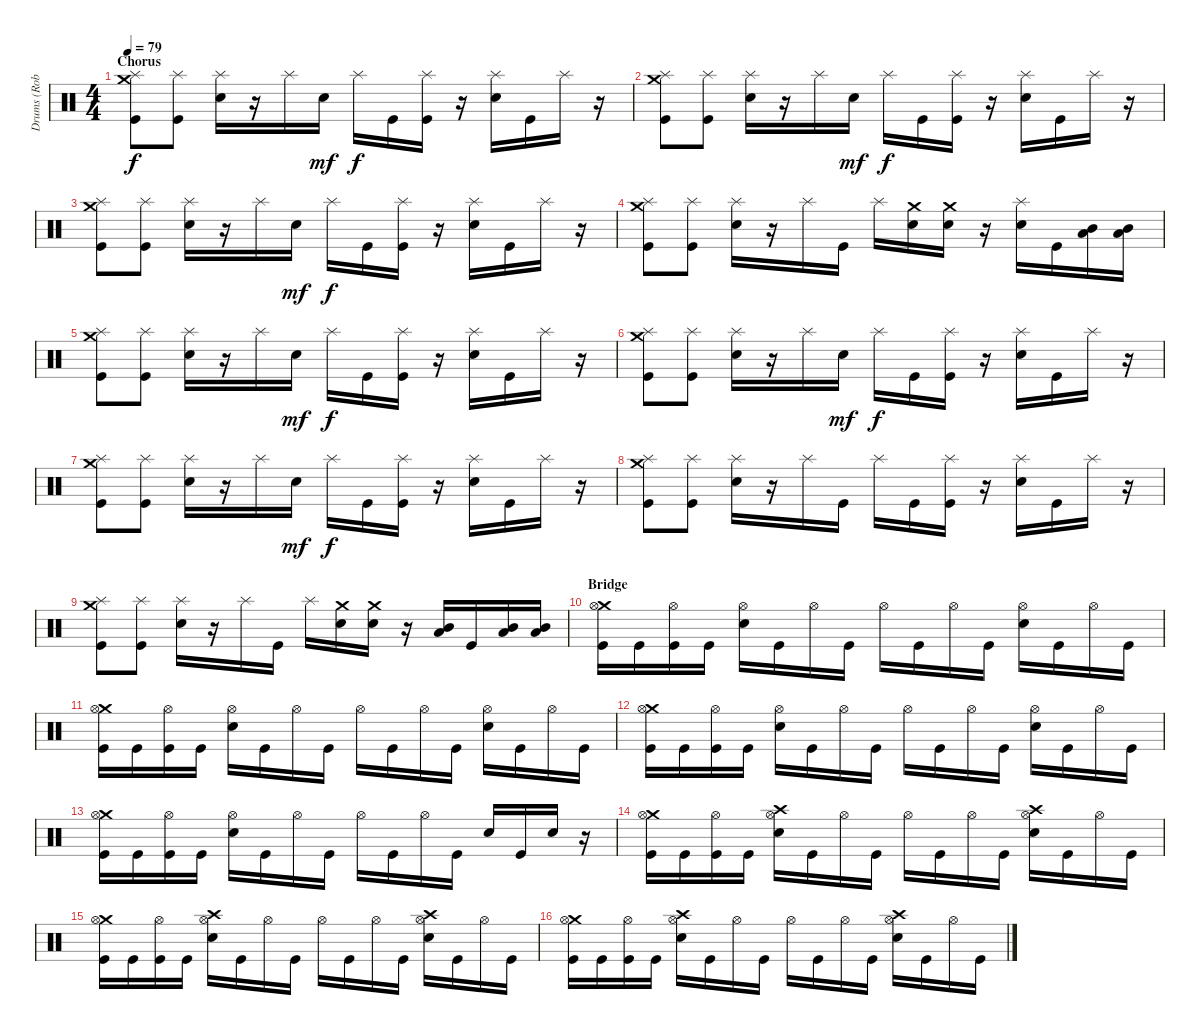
\track ("Drums (Rob Bourdon)" "Drums (Rob") {instrument percussion}
\staff {score}
\articulation defaults
\ts (4 4)
\section ("" "Chorus")
\tempo 79
\clef neutral
\ks c
("Crash medium (hit)" "Splash (hit)" "Kick (hit)").8{dy f} ("Splash (hit)" "Kick (hit)").8 ("Splash (hit)" "Electric Snare (hit)").16 r.16 "Splash (hit)".16 "Electric Snare (hit)".16{dy mf} "Splash (hit)".16{dy f} "Kick (hit)".16 ("Splash (hit)" "Kick (hit)").16 r.16 ("Splash (hit)" "Electric Snare (hit)").16 "Kick (hit)".16 "Splash (hit)".16 r.16 |
("Crash medium (hit)" "Splash (hit)" "Kick (hit)").8 ("Splash (hit)" "Kick (hit)").8 ("Splash (hit)" "Electric Snare (hit)").16 r.16 "Splash (hit)".16 "Electric Snare (hit)".16{dy mf} "Splash (hit)".16{dy f} "Kick (hit)".16 ("Splash (hit)" "Kick (hit)").16 r.16 ("Splash (hit)" "Electric Snare (hit)").16 "Kick (hit)".16 "Splash (hit)".16 r.16 |
("Crash medium (hit)" "Splash (hit)" "Kick (hit)").8 ("Splash (hit)" "Kick (hit)").8 ("Splash (hit)" "Electric Snare (hit)").16 r.16 "Splash (hit)".16 "Electric Snare (hit)".16{dy mf} "Splash (hit)".16{dy f} "Kick (hit)".16 ("Splash (hit)" "Kick (hit)").16 r.16 ("Splash (hit)" "Electric Snare (hit)").16 "Kick (hit)".16 "Splash (hit)".16 r.16 |
("Crash medium (hit)" "Splash (hit)" "Kick (hit)").8 ("Splash (hit)" "Kick (hit)").8 ("Splash (hit)" "Electric Snare (hit)").16 r.16 "Splash (hit)".16 "Kick (hit)".16 "Splash (hit)".16 ("Crash medium (hit)" "Electric Snare (hit)").16 ("Crash medium (hit)" "Electric Snare (hit)").16 r.16 ("Splash (hit)" "Electric Snare (hit)").16 "Kick (hit)".16 ("Mid Tom (hit)" "Low Tom (hit)").16 ("Mid Tom (hit)" "Low Tom (hit)").16 |
("Crash medium (hit)" "Splash (hit)" "Kick (hit)").8 ("Splash (hit)" "Kick (hit)").8 ("Splash (hit)" "Electric Snare (hit)").16 r.16 "Splash (hit)".16 "Electric Snare (hit)".16{dy mf} "Splash (hit)".16{dy f} "Kick (hit)".16 ("Splash (hit)" "Kick (hit)").16 r.16 ("Splash (hit)" "Electric Snare (hit)").16 "Kick (hit)".16 "Splash (hit)".16 r.16 |
("Crash medium (hit)" "Splash (hit)" "Kick (hit)").8 ("Splash (hit)" "Kick (hit)").8 ("Splash (hit)" "Electric Snare (hit)").16 r.16 "Splash (hit)".16 "Electric Snare (hit)".16{dy mf} "Splash (hit)".16{dy f} "Kick (hit)".16 ("Splash (hit)" "Kick (hit)").16 r.16 ("Splash (hit)" "Electric Snare (hit)").16 "Kick (hit)".16 "Splash (hit)".16 r.16 |
("Crash medium (hit)" "Splash (hit)" "Kick (hit)").8 ("Splash (hit)" "Kick (hit)").8 ("Splash (hit)" "Electric Snare (hit)").16 r.16 "Splash (hit)".16 "Electric Snare (hit)".16{dy mf} "Splash (hit)".16{dy f} "Kick (hit)".16 ("Splash (hit)" "Kick (hit)").16 r.16 ("Splash (hit)" "Electric Snare (hit)").16 "Kick (hit)".16 "Splash (hit)".16 r.16 |
("Crash medium (hit)" "Splash (hit)" "Kick (hit)").8 ("Splash (hit)" "Kick (hit)").8 ("Splash (hit)" "Electric Snare (hit)").16 r.16 "Splash (hit)".16 "Kick (hit)".16 "Splash (hit)".16 "Kick (hit)".16 ("Splash (hit)" "Kick (hit)").16 r.16 ("Splash (hit)" "Electric Snare (hit)").16 "Kick (hit)".16 "Splash (hit)".16 r.16 |
("Crash medium (hit)" "Splash (hit)" "Kick (hit)").8 ("Splash (hit)" "Kick (hit)").8 ("Splash (hit)" "Electric Snare (hit)").16 r.16 "Splash (hit)".16 "Kick (hit)".16 "Splash (hit)".16 ("Crash medium (hit)" "Electric Snare (hit)").16 ("Crash medium (hit)" "Electric Snare (hit)").16 r.16 ("Mid Tom (hit)" "Low Tom (hit)").16 "Kick (hit)".16 ("Mid Tom (hit)" "Low Tom (hit)").16 ("Mid Tom (hit)" "Low Tom (hit)").16 |
\section ("" "Bridge")
("Crash medium (hit)" "Hi-Hat (open)" "Kick (hit)").16 "Kick (hit)".16 ("Hi-Hat (open)" "Kick (hit)").16 "Kick (hit)".16 ("Hi-Hat (open)" "Electric Snare (hit)").16 "Kick (hit)".16 "Hi-Hat (open)".16 "Kick (hit)".16 "Hi-Hat (open)".16 "Kick (hit)".16 "Hi-Hat (open)".16 "Kick (hit)".16 ("Hi-Hat (open)" "Electric Snare (hit)").16 "Kick (hit)".16 "Hi-Hat (open)".16 "Kick (hit)".16 |
("Crash medium (hit)" "Hi-Hat (open)" "Kick (hit)").16 "Kick (hit)".16 ("Hi-Hat (open)" "Kick (hit)").16 "Kick (hit)".16 ("Hi-Hat (open)" "Electric Snare (hit)").16 "Kick (hit)".16 "Hi-Hat (open)".16 "Kick (hit)".16 "Hi-Hat (open)".16 "Kick (hit)".16 "Hi-Hat (open)".16 "Kick (hit)".16 ("Hi-Hat (open)" "Electric Snare (hit)").16 "Kick (hit)".16 "Hi-Hat (open)".16 "Kick (hit)".16 |
("Crash medium (hit)" "Hi-Hat (open)" "Kick (hit)").16 "Kick (hit)".16 ("Hi-Hat (open)" "Kick (hit)").16 "Kick (hit)".16 ("Hi-Hat (open)" "Electric Snare (hit)").16 "Kick (hit)".16 "Hi-Hat (open)".16 "Kick (hit)".16 "Hi-Hat (open)".16 "Kick (hit)".16 "Hi-Hat (open)".16 "Kick (hit)".16 ("Hi-Hat (open)" "Electric Snare (hit)").16 "Kick (hit)".16 "Hi-Hat (open)".16 "Kick (hit)".16 |
("Crash medium (hit)" "Hi-Hat (open)" "Kick (hit)").16 "Kick (hit)".16 ("Hi-Hat (open)" "Kick (hit)").16 "Kick (hit)".16 ("Hi-Hat (open)" "Electric Snare (hit)").16 "Kick (hit)".16 "Hi-Hat (open)".16 "Kick (hit)".16 "Hi-Hat (open)".16 "Kick (hit)".16 "Hi-Hat (open)".16 "Kick (hit)".16 "Electric Snare (hit)".16 "Kick (hit)".16 "Electric Snare (hit)".16 r.16 |
("Crash medium (hit)" "Hi-Hat (open)" "Kick (hit)").16 "Kick (hit)".16 ("Hi-Hat (open)" "Kick (hit)").16 "Kick (hit)".16 ("Crash high (hit)" "Hi-Hat (open)" "Electric Snare (hit)").16 "Kick (hit)".16 "Hi-Hat (open)".16 "Kick (hit)".16 "Hi-Hat (open)".16 "Kick (hit)".16 "Hi-Hat (open)".16 "Kick (hit)".16 ("Crash high (hit)" "Hi-Hat (open)" "Electric Snare (hit)").16 "Kick (hit)".16 "Hi-Hat (open)".16 "Kick (hit)".16 |
("Crash medium (hit)" "Hi-Hat (open)" "Kick (hit)").16 "Kick (hit)".16 ("Hi-Hat (open)" "Kick (hit)").16 "Kick (hit)".16 ("Crash high (hit)" "Hi-Hat (open)" "Electric Snare (hit)").16 "Kick (hit)".16 "Hi-Hat (open)".16 "Kick (hit)".16 "Hi-Hat (open)".16 "Kick (hit)".16 "Hi-Hat (open)".16 "Kick (hit)".16 ("Crash high (hit)" "Hi-Hat (open)" "Electric Snare (hit)").16 "Kick (hit)".16 "Hi-Hat (open)".16 "Kick (hit)".16 |
("Crash medium (hit)" "Hi-Hat (open)" "Kick (hit)").16 "Kick (hit)".16 ("Hi-Hat (open)" "Kick (hit)").16 "Kick (hit)".16 ("Crash high (hit)" "Hi-Hat (open)" "Electric Snare (hit)").16 "Kick (hit)".16 "Hi-Hat (open)".16 "Kick (hit)".16 "Hi-Hat (open)".16 "Kick (hit)".16 "Hi-Hat (open)".16 "Kick (hit)".16 ("Crash high (hit)" "Hi-Hat (open)" "Electric Snare (hit)").16 "Kick (hit)".16 "Hi-Hat (open)".16 "Kick (hit)".16
